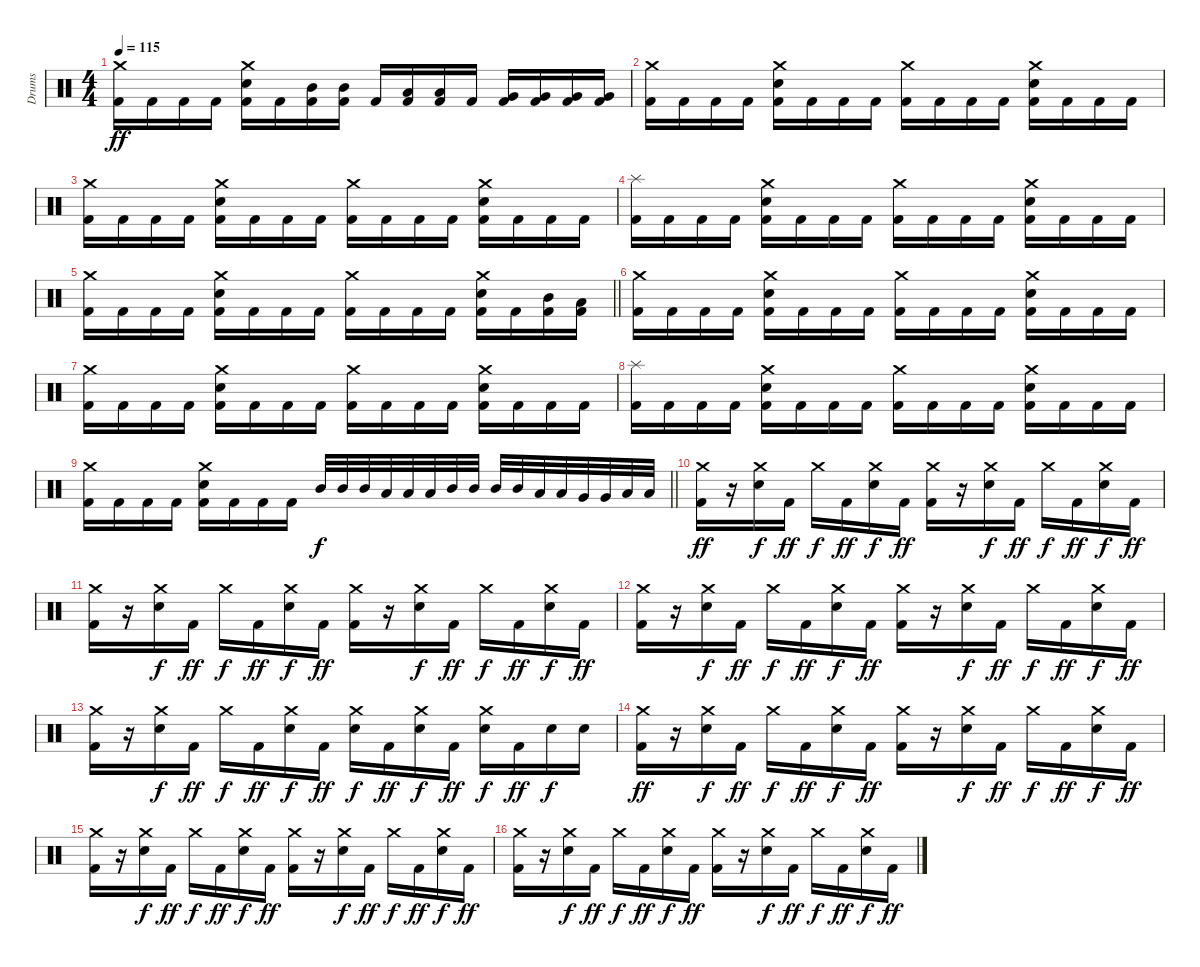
\track ("Drums" "Drums") {instrument percussion}
\staff {score}
\articulation defaults
\ts (4 4)
\tempo 115
\clef neutral
\ks c
("Crash medium (hit)" "Kick (hit) 2").16{dy ff} "Kick (hit) 2".16 "Kick (hit) 2".16 "Kick (hit) 2".16 ("Crash medium (hit)" "Electric Snare (hit)" "Kick (hit) 2").16 "Kick (hit) 2".16 ("Mid Tom (hit)" "Kick (hit) 2").16 ("Mid Tom (hit)" "Kick (hit) 2").16 "Kick (hit) 2".16 ("Low Tom (hit)" "Kick (hit) 2").16 ("Low Tom (hit)" "Kick (hit) 2").16 "Kick (hit) 2".16 ("Very Low Tom (hit)" "Kick (hit) 2").16 ("Very Low Tom (hit)" "Kick (hit) 2").16 ("Very Low Tom (hit)" "Kick (hit) 2").16 ("Very Low Tom (hit)" "Kick (hit) 2").16 |
("Crash medium (hit)" "Kick (hit) 2").16 "Kick (hit) 2".16 "Kick (hit) 2".16 "Kick (hit) 2".16 ("Crash medium (hit)" "Electric Snare (hit)" "Kick (hit) 2").16 "Kick (hit) 2".16 "Kick (hit) 2".16 "Kick (hit) 2".16 ("Crash medium (hit)" "Kick (hit) 2").16 "Kick (hit) 2".16 "Kick (hit) 2".16 "Kick (hit) 2".16 ("Crash medium (hit)" "Electric Snare (hit)" "Kick (hit) 2").16 "Kick (hit) 2".16 "Kick (hit) 2".16 "Kick (hit) 2".16 |
("Crash medium (hit)" "Kick (hit) 2").16 "Kick (hit) 2".16 "Kick (hit) 2".16 "Kick (hit) 2".16 ("Crash medium (hit)" "Electric Snare (hit)" "Kick (hit) 2").16 "Kick (hit) 2".16 "Kick (hit) 2".16 "Kick (hit) 2".16 ("Crash medium (hit)" "Kick (hit) 2").16 "Kick (hit) 2".16 "Kick (hit) 2".16 "Kick (hit) 2".16 ("Crash medium (hit)" "Electric Snare (hit)" "Kick (hit) 2").16 "Kick (hit) 2".16 "Kick (hit) 2".16 "Kick (hit) 2".16 |
("Splash (hit)" "Kick (hit) 2").16 "Kick (hit) 2".16 "Kick (hit) 2".16 "Kick (hit) 2".16 ("Crash medium (hit)" "Electric Snare (hit)" "Kick (hit) 2").16 "Kick (hit) 2".16 "Kick (hit) 2".16 "Kick (hit) 2".16 ("Crash medium (hit)" "Kick (hit) 2").16 "Kick (hit) 2".16 "Kick (hit) 2".16 "Kick (hit) 2".16 ("Crash medium (hit)" "Electric Snare (hit)" "Kick (hit) 2").16 "Kick (hit) 2".16 "Kick (hit) 2".16 "Kick (hit) 2".16 |
\barLineRight lightlight
("Crash medium (hit)" "Kick (hit) 2").16 "Kick (hit) 2".16 "Kick (hit) 2".16 "Kick (hit) 2".16 ("Crash medium (hit)" "Electric Snare (hit)" "Kick (hit) 2").16 "Kick (hit) 2".16 "Kick (hit) 2".16 "Kick (hit) 2".16 ("Crash medium (hit)" "Kick (hit) 2").16 "Kick (hit) 2".16 "Kick (hit) 2".16 "Kick (hit) 2".16 ("Crash medium (hit)" "Electric Snare (hit)" "Kick (hit) 2").16 "Kick (hit) 2".16 ("Mid Tom (hit)" "Kick (hit) 2").16 ("Low Tom (hit)" "Kick (hit) 2").16 |
("Crash medium (hit)" "Kick (hit) 2").16 "Kick (hit) 2".16 "Kick (hit) 2".16 "Kick (hit) 2".16 ("Crash medium (hit)" "Electric Snare (hit)" "Kick (hit) 2").16 "Kick (hit) 2".16 "Kick (hit) 2".16 "Kick (hit) 2".16 ("Crash medium (hit)" "Kick (hit) 2").16 "Kick (hit) 2".16 "Kick (hit) 2".16 "Kick (hit) 2".16 ("Crash medium (hit)" "Electric Snare (hit)" "Kick (hit) 2").16 "Kick (hit) 2".16 "Kick (hit) 2".16 "Kick (hit) 2".16 |
("Crash medium (hit)" "Kick (hit) 2").16 "Kick (hit) 2".16 "Kick (hit) 2".16 "Kick (hit) 2".16 ("Crash medium (hit)" "Electric Snare (hit)" "Kick (hit) 2").16 "Kick (hit) 2".16 "Kick (hit) 2".16 "Kick (hit) 2".16 ("Crash medium (hit)" "Kick (hit) 2").16 "Kick (hit) 2".16 "Kick (hit) 2".16 "Kick (hit) 2".16 ("Crash medium (hit)" "Electric Snare (hit)" "Kick (hit) 2").16 "Kick (hit) 2".16 "Kick (hit) 2".16 "Kick (hit) 2".16 |
("Splash (hit)" "Kick (hit) 2").16 "Kick (hit) 2".16 "Kick (hit) 2".16 "Kick (hit) 2".16 ("Crash medium (hit)" "Electric Snare (hit)" "Kick (hit) 2").16 "Kick (hit) 2".16 "Kick (hit) 2".16 "Kick (hit) 2".16 ("Crash medium (hit)" "Kick (hit) 2").16 "Kick (hit) 2".16 "Kick (hit) 2".16 "Kick (hit) 2".16 ("Crash medium (hit)" "Electric Snare (hit)" "Kick (hit) 2").16 "Kick (hit) 2".16 "Kick (hit) 2".16 "Kick (hit) 2".16 |
\barLineRight lightlight
("Crash medium (hit)" "Kick (hit) 2").16 "Kick (hit) 2".16 "Kick (hit) 2".16 "Kick (hit) 2".16 ("Crash medium (hit)" "Electric Snare (hit)" "Kick (hit) 2").16 "Kick (hit) 2".16 "Kick (hit) 2".16 "Kick (hit) 2".16 "Mid Tom (hit)".32{dy f} "Mid Tom (hit)".32 "Mid Tom (hit)".32 "Low Tom (hit)".32 "Low Tom (hit)".32 "Low Tom (hit)".32 "Mid Tom (hit)".32 "Mid Tom (hit)".32 "Mid Tom (hit)".32 "Mid Tom (hit)".32 "Low Tom (hit)".32 "Low Tom (hit)".32 "Very Low Tom (hit)".32 "Very Low Tom (hit)".32 "Low Floor Tom (hit)".32 "Low Floor Tom (hit)".32 |
("Crash medium (hit)" "Kick (hit) 2").16{dy ff} r.16 ("Crash medium (hit)" "Electric Snare (hit)").16{dy f} "Kick (hit) 2".16{dy ff} "Crash medium (hit)".16{dy f} "Kick (hit) 2".16{dy ff} ("Crash medium (hit)" "Electric Snare (hit)").16{dy f} "Kick (hit) 2".16{dy ff} ("Crash medium (hit)" "Kick (hit) 2").16 r.16 ("Crash medium (hit)" "Electric Snare (hit)").16{dy f} "Kick (hit) 2".16{dy ff} "Crash medium (hit)".16{dy f} "Kick (hit) 2".16{dy ff} ("Crash medium (hit)" "Electric Snare (hit)").16{dy f} "Kick (hit) 2".16{dy ff} |
("Crash medium (hit)" "Kick (hit) 2").16 r.16 ("Crash medium (hit)" "Electric Snare (hit)").16{dy f} "Kick (hit) 2".16{dy ff} "Crash medium (hit)".16{dy f} "Kick (hit) 2".16{dy ff} ("Crash medium (hit)" "Electric Snare (hit)").16{dy f} "Kick (hit) 2".16{dy ff} ("Crash medium (hit)" "Kick (hit) 2").16 r.16 ("Crash medium (hit)" "Electric Snare (hit)").16{dy f} "Kick (hit) 2".16{dy ff} "Crash medium (hit)".16{dy f} "Kick (hit) 2".16{dy ff} ("Crash medium (hit)" "Electric Snare (hit)").16{dy f} "Kick (hit) 2".16{dy ff} |
("Crash medium (hit)" "Kick (hit) 2").16 r.16 ("Crash medium (hit)" "Electric Snare (hit)").16{dy f} "Kick (hit) 2".16{dy ff} "Crash medium (hit)".16{dy f} "Kick (hit) 2".16{dy ff} ("Crash medium (hit)" "Electric Snare (hit)").16{dy f} "Kick (hit) 2".16{dy ff} ("Crash medium (hit)" "Kick (hit) 2").16 r.16 ("Crash medium (hit)" "Electric Snare (hit)").16{dy f} "Kick (hit) 2".16{dy ff} "Crash medium (hit)".16{dy f} "Kick (hit) 2".16{dy ff} ("Crash medium (hit)" "Electric Snare (hit)").16{dy f} "Kick (hit) 2".16{dy ff} |
("Crash medium (hit)" "Kick (hit) 2").16 r.16 ("Crash medium (hit)" "Electric Snare (hit)").16{dy f} "Kick (hit) 2".16{dy ff} "Crash medium (hit)".16{dy f} "Kick (hit) 2".16{dy ff} ("Crash medium (hit)" "Electric Snare (hit)").16{dy f} "Kick (hit) 2".16{dy ff} ("Crash medium (hit)" "Electric Snare (hit)").16{dy f} "Kick (hit) 2".16{dy ff} ("Crash medium (hit)" "Electric Snare (hit)").16{dy f} "Kick (hit) 2".16{dy ff} ("Crash medium (hit)" "Electric Snare (hit)").16{dy f} "Kick (hit) 2".16{dy ff} "Electric Snare (hit)".16{dy f} "Electric Snare (hit)".16 |
("Crash medium (hit)" "Kick (hit) 2").16{dy ff} r.16 ("Crash medium (hit)" "Electric Snare (hit)").16{dy f} "Kick (hit) 2".16{dy ff} "Crash medium (hit)".16{dy f} "Kick (hit) 2".16{dy ff} ("Crash medium (hit)" "Electric Snare (hit)").16{dy f} "Kick (hit) 2".16{dy ff} ("Crash medium (hit)" "Kick (hit) 2").16 r.16 ("Crash medium (hit)" "Electric Snare (hit)").16{dy f} "Kick (hit) 2".16{dy ff} "Crash medium (hit)".16{dy f} "Kick (hit) 2".16{dy ff} ("Crash medium (hit)" "Electric Snare (hit)").16{dy f} "Kick (hit) 2".16{dy ff} |
("Crash medium (hit)" "Kick (hit) 2").16 r.16 ("Crash medium (hit)" "Electric Snare (hit)").16{dy f} "Kick (hit) 2".16{dy ff} "Crash medium (hit)".16{dy f} "Kick (hit) 2".16{dy ff} ("Crash medium (hit)" "Electric Snare (hit)").16{dy f} "Kick (hit) 2".16{dy ff} ("Crash medium (hit)" "Kick (hit) 2").16 r.16 ("Crash medium (hit)" "Electric Snare (hit)").16{dy f} "Kick (hit) 2".16{dy ff} "Crash medium (hit)".16{dy f} "Kick (hit) 2".16{dy ff} ("Crash medium (hit)" "Electric Snare (hit)").16{dy f} "Kick (hit) 2".16{dy ff} |
("Crash medium (hit)" "Kick (hit) 2").16 r.16 ("Crash medium (hit)" "Electric Snare (hit)").16{dy f} "Kick (hit) 2".16{dy ff} "Crash medium (hit)".16{dy f} "Kick (hit) 2".16{dy ff} ("Crash medium (hit)" "Electric Snare (hit)").16{dy f} "Kick (hit) 2".16{dy ff} ("Crash medium (hit)" "Kick (hit) 2").16 r.16 ("Crash medium (hit)" "Electric Snare (hit)").16{dy f} "Kick (hit) 2".16{dy ff} "Crash medium (hit)".16{dy f} "Kick (hit) 2".16{dy ff} ("Crash medium (hit)" "Electric Snare (hit)").16{dy f} "Kick (hit) 2".16{dy ff}
